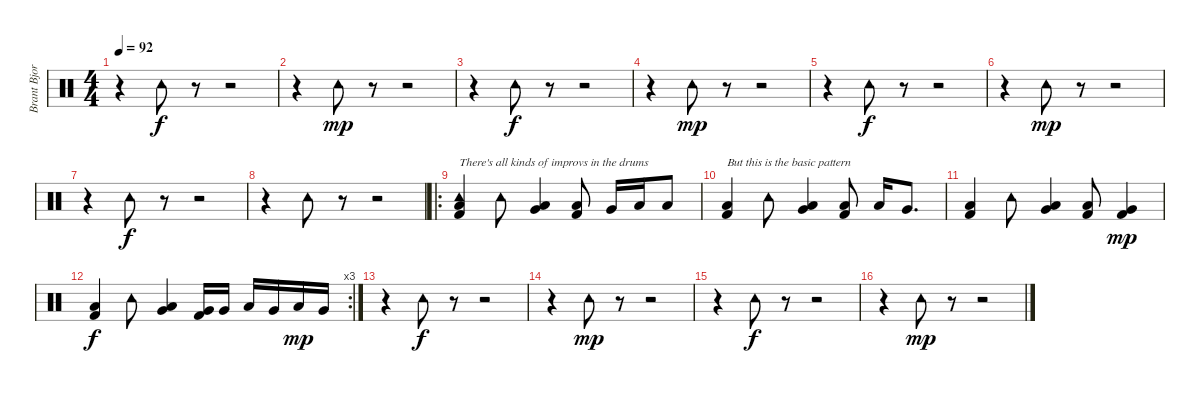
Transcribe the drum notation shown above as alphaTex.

\track ("Brant Bjork - Drums" "Brant Bjor") {instrument percussion}
\staff {score}
\articulation defaults
\ts (4 4)
\tempo 92
\clef neutral
\ks c
r.4{dy f} "Tambourine (hit)".8 r.8 r.2 |
r.4 "Tambourine (hit)".8{dy mp} r.8 r.2 |
r.4 "Tambourine (hit)".8{dy f} r.8 r.2 |
r.4 "Tambourine (hit)".8{dy mp} r.8 r.2 |
r.4 "Tambourine (hit)".8{dy f} r.8 r.2 |
r.4 "Tambourine (hit)".8{dy mp} r.8 r.2 |
r.4 "Tambourine (hit)".8{dy f} r.8 r.2 |
r.4 "Tambourine (hit)".8 r.8 r.2 |
\ro
("Tambourine (hit)" "Low Floor Tom (hit)" "Kick (hit) 2").4{txt "There's all kinds of improvs in the drums"} "Tambourine (hit)".8 ("Low Floor Tom (hit)" "Very Low Tom (hit)").4 ("Low Floor Tom (hit)" "Kick (hit) 2").8 "Very Low Tom (hit)".16 "Low Floor Tom (hit)".16 "Low Floor Tom (hit)".8 |
("Low Floor Tom (hit)" "Kick (hit) 2").4{txt "But this is the basic pattern"} "Tambourine (hit)".8 ("Low Floor Tom (hit)" "Very Low Tom (hit)").4 ("Low Floor Tom (hit)" "Kick (hit) 2").8 "Low Floor Tom (hit)".16 "Very Low Tom (hit)".8{d} |
("Low Floor Tom (hit)" "Kick (hit) 2").4 "Tambourine (hit)".8 ("Low Floor Tom (hit)" "Very Low Tom (hit)").4 ("Low Floor Tom (hit)" "Kick (hit) 2").8 ("Very Low Tom (hit)" "Kick (hit) 2").4{dy mp} |
\rc 3
("Low Floor Tom (hit)" "Kick (hit) 2").4{dy f} "Tambourine (hit)".8 ("Low Floor Tom (hit)" "Very Low Tom (hit)").4 ("Very Low Tom (hit)" "Kick (hit) 2").16 "Very Low Tom (hit)".16 "Low Tom (hit)".16 "Very Low Tom (hit)".16 "Low Floor Tom (hit)".16{dy mp} "Very Low Tom (hit)".16 |
r.4 "Tambourine (hit)".8{dy f} r.8 r.2 |
r.4 "Tambourine (hit)".8{dy mp} r.8 r.2 |
r.4 "Tambourine (hit)".8{dy f} r.8 r.2 |
r.4 "Tambourine (hit)".8{dy mp} r.8 r.2
